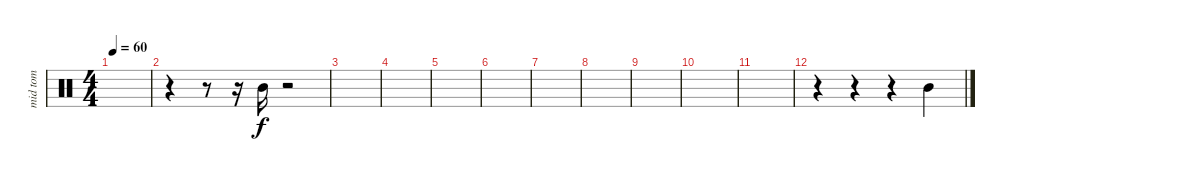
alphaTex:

\track ("mid tom" "mid tom") {instrument percussion}
\staff {score}
\articulation defaults
\ts (4 4)
\tempo 60
\clef neutral
\ks c
|
r.4 r.8 r.16 "Mid Tom (hit)".16 r.2 |
|
|
|
|
|
|
|
|
|
r.4 r.4 r.4 "Mid Tom (hit)".4
